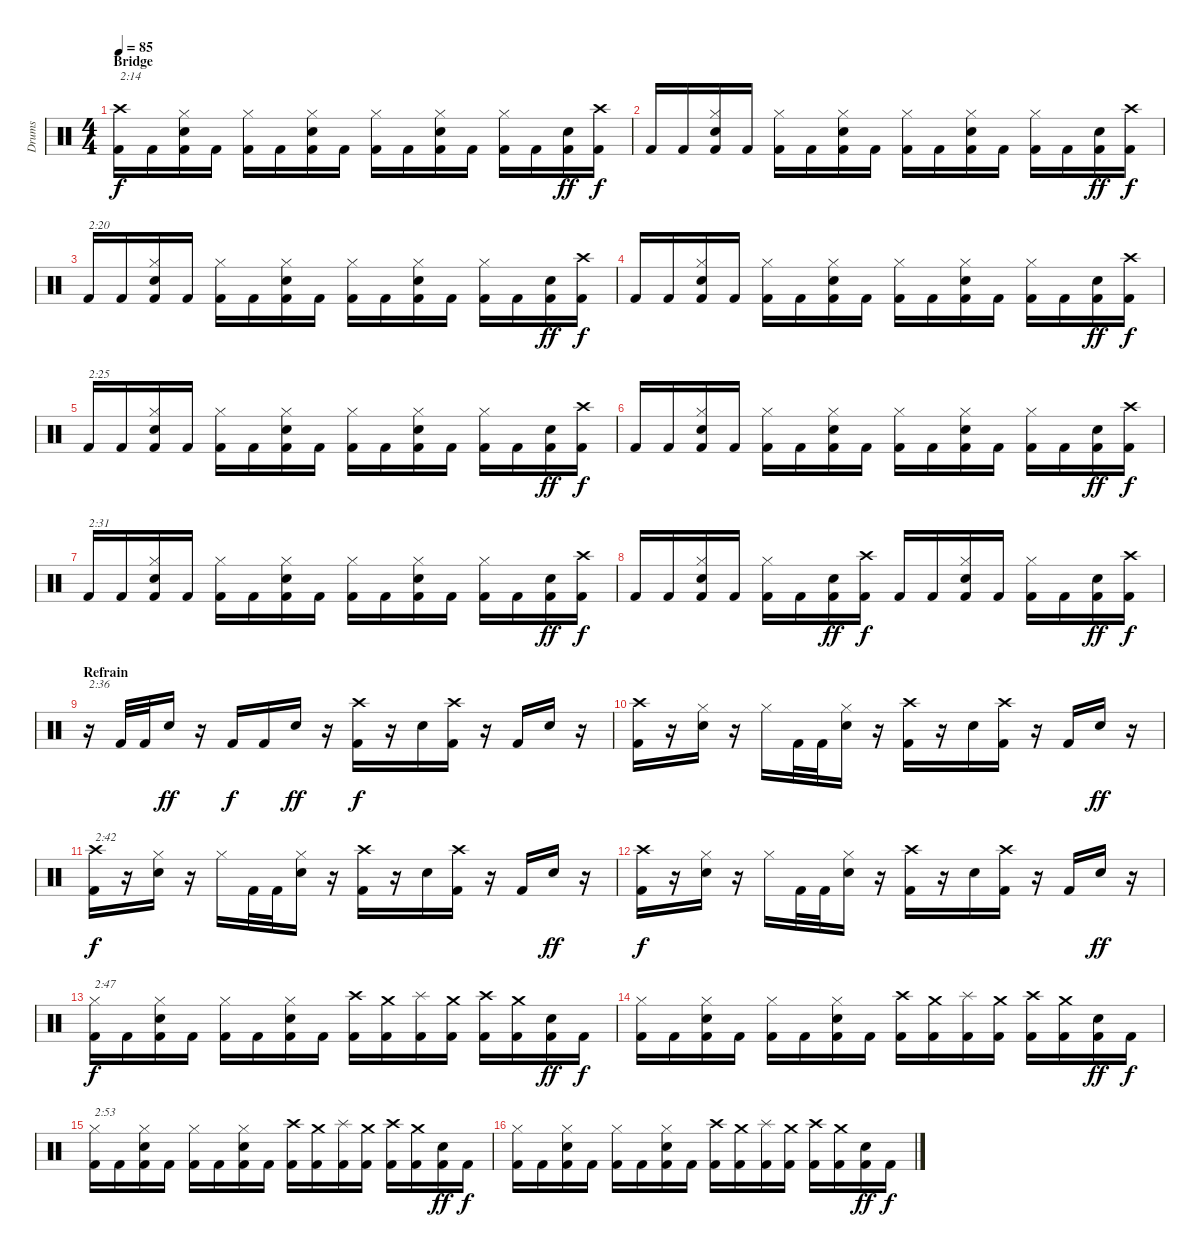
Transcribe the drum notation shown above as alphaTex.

\track ("Drums" "Drums") {instrument percussion}
\staff {score}
\articulation defaults
\ts (4 4)
\section ("" "Bridge")
\tempo 85
\clef neutral
\ks c
("Crash high (hit)" "Kick (hit) 2").16{txt "2:14" dy f} "Kick (hit) 2".16 ("Hi-Hat (closed)" "Snare (hit) 2" "Kick (hit) 2").16 "Kick (hit) 2".16 ("Hi-Hat (closed)" "Kick (hit) 2").16 "Kick (hit) 2".16 ("Hi-Hat (closed)" "Snare (hit) 2" "Kick (hit) 2").16 "Kick (hit) 2".16 ("Hi-Hat (closed)" "Kick (hit) 2").16 "Kick (hit) 2".16 ("Hi-Hat (closed)" "Snare (hit) 2" "Kick (hit) 2").16 "Kick (hit) 2".16 ("Hi-Hat (closed)" "Kick (hit) 2").16 "Kick (hit) 2".16 ("Snare (hit) 2" "Kick (hit) 2").16{dy ff} ("Crash high (hit)" "Kick (hit) 2").16{dy f} |
"Kick (hit) 2".16 "Kick (hit) 2".16 ("Hi-Hat (closed)" "Snare (hit) 2" "Kick (hit) 2").16 "Kick (hit) 2".16 ("Hi-Hat (closed)" "Kick (hit) 2").16 "Kick (hit) 2".16 ("Hi-Hat (closed)" "Snare (hit) 2" "Kick (hit) 2").16 "Kick (hit) 2".16 ("Hi-Hat (closed)" "Kick (hit) 2").16 "Kick (hit) 2".16 ("Hi-Hat (closed)" "Snare (hit) 2" "Kick (hit) 2").16 "Kick (hit) 2".16 ("Hi-Hat (closed)" "Kick (hit) 2").16 "Kick (hit) 2".16 ("Snare (hit) 2" "Kick (hit) 2").16{dy ff} ("Crash high (hit)" "Kick (hit) 2").16{dy f} |
"Kick (hit) 2".16{txt "2:20"} "Kick (hit) 2".16 ("Hi-Hat (closed)" "Snare (hit) 2" "Kick (hit) 2").16 "Kick (hit) 2".16 ("Hi-Hat (closed)" "Kick (hit) 2").16 "Kick (hit) 2".16 ("Hi-Hat (closed)" "Snare (hit) 2" "Kick (hit) 2").16 "Kick (hit) 2".16 ("Hi-Hat (closed)" "Kick (hit) 2").16 "Kick (hit) 2".16 ("Hi-Hat (closed)" "Snare (hit) 2" "Kick (hit) 2").16 "Kick (hit) 2".16 ("Hi-Hat (closed)" "Kick (hit) 2").16 "Kick (hit) 2".16 ("Snare (hit) 2" "Kick (hit) 2").16{dy ff} ("Crash high (hit)" "Kick (hit) 2").16{dy f} |
"Kick (hit) 2".16 "Kick (hit) 2".16 ("Hi-Hat (closed)" "Snare (hit) 2" "Kick (hit) 2").16 "Kick (hit) 2".16 ("Hi-Hat (closed)" "Kick (hit) 2").16 "Kick (hit) 2".16 ("Hi-Hat (closed)" "Snare (hit) 2" "Kick (hit) 2").16 "Kick (hit) 2".16 ("Hi-Hat (closed)" "Kick (hit) 2").16 "Kick (hit) 2".16 ("Hi-Hat (closed)" "Snare (hit) 2" "Kick (hit) 2").16 "Kick (hit) 2".16 ("Hi-Hat (closed)" "Kick (hit) 2").16 "Kick (hit) 2".16 ("Snare (hit) 2" "Kick (hit) 2").16{dy ff} ("Crash high (hit)" "Kick (hit) 2").16{dy f} |
"Kick (hit) 2".16{txt "2:25"} "Kick (hit) 2".16 ("Hi-Hat (closed)" "Snare (hit) 2" "Kick (hit) 2").16 "Kick (hit) 2".16 ("Hi-Hat (closed)" "Kick (hit) 2").16 "Kick (hit) 2".16 ("Hi-Hat (closed)" "Snare (hit) 2" "Kick (hit) 2").16 "Kick (hit) 2".16 ("Hi-Hat (closed)" "Kick (hit) 2").16 "Kick (hit) 2".16 ("Hi-Hat (closed)" "Snare (hit) 2" "Kick (hit) 2").16 "Kick (hit) 2".16 ("Hi-Hat (closed)" "Kick (hit) 2").16 "Kick (hit) 2".16 ("Snare (hit) 2" "Kick (hit) 2").16{dy ff} ("Crash high (hit)" "Kick (hit) 2").16{dy f} |
"Kick (hit) 2".16 "Kick (hit) 2".16 ("Hi-Hat (closed)" "Snare (hit) 2" "Kick (hit) 2").16 "Kick (hit) 2".16 ("Hi-Hat (closed)" "Kick (hit) 2").16 "Kick (hit) 2".16 ("Hi-Hat (closed)" "Snare (hit) 2" "Kick (hit) 2").16 "Kick (hit) 2".16 ("Hi-Hat (closed)" "Kick (hit) 2").16 "Kick (hit) 2".16 ("Hi-Hat (closed)" "Snare (hit) 2" "Kick (hit) 2").16 "Kick (hit) 2".16 ("Hi-Hat (closed)" "Kick (hit) 2").16 "Kick (hit) 2".16 ("Snare (hit) 2" "Kick (hit) 2").16{dy ff} ("Crash high (hit)" "Kick (hit) 2").16{dy f} |
"Kick (hit) 2".16{txt "2:31"} "Kick (hit) 2".16 ("Hi-Hat (closed)" "Snare (hit) 2" "Kick (hit) 2").16 "Kick (hit) 2".16 ("Hi-Hat (closed)" "Kick (hit) 2").16 "Kick (hit) 2".16 ("Hi-Hat (closed)" "Snare (hit) 2" "Kick (hit) 2").16 "Kick (hit) 2".16 ("Hi-Hat (closed)" "Kick (hit) 2").16 "Kick (hit) 2".16 ("Hi-Hat (closed)" "Snare (hit) 2" "Kick (hit) 2").16 "Kick (hit) 2".16 ("Hi-Hat (closed)" "Kick (hit) 2").16 "Kick (hit) 2".16 ("Snare (hit) 2" "Kick (hit) 2").16{dy ff} ("Crash high (hit)" "Kick (hit) 2").16{dy f} |
"Kick (hit) 2".16 "Kick (hit) 2".16 ("Hi-Hat (closed)" "Snare (hit) 2" "Kick (hit) 2").16 "Kick (hit) 2".16 ("Hi-Hat (closed)" "Kick (hit) 2").16 "Kick (hit) 2".16 ("Snare (hit) 2" "Kick (hit) 2").16{dy ff} ("Crash high (hit)" "Kick (hit) 2").16{dy f} "Kick (hit) 2".16 "Kick (hit) 2".16 ("Hi-Hat (closed)" "Snare (hit) 2" "Kick (hit) 2").16 "Kick (hit) 2".16 ("Hi-Hat (closed)" "Kick (hit) 2").16 "Kick (hit) 2".16 ("Snare (hit) 2" "Kick (hit) 2").16{dy ff} ("Crash high (hit)" "Kick (hit) 2").16{dy f} |
\section ("" "Refrain")
r.16{txt "2:36"} "Kick (hit) 2".32 "Kick (hit) 2".32 "Snare (hit) 2".16{dy ff} r.16 "Kick (hit) 2".16{dy f} "Kick (hit) 2".16 "Snare (hit) 2".16{dy ff} r.16 ("Crash high (hit)" "Kick (hit) 2").16{dy f} r.16 "Snare (hit) 2".16 ("Crash high (hit)" "Kick (hit) 2").16 r.16 "Kick (hit) 2".16 "Snare (hit) 2".16 r.16 |
("Crash high (hit)" "Kick (hit) 2").16 r.16 ("Hi-Hat (closed)" "Snare (hit) 2").16 r.16 "Hi-Hat (closed)".16 "Kick (hit) 2".32 "Kick (hit) 2".32 ("Hi-Hat (closed)" "Snare (hit) 2").16 r.16 ("Crash high (hit)" "Kick (hit) 2").16 r.16 "Snare (hit) 2".16 ("Crash high (hit)" "Kick (hit) 2").16 r.16 "Kick (hit) 2".16 "Snare (hit) 2".16{dy ff} r.16 |
("Crash high (hit)" "Kick (hit) 2").16{txt "2:42" dy f} r.16 ("Hi-Hat (closed)" "Snare (hit) 2").16 r.16 "Hi-Hat (closed)".16 "Kick (hit) 2".32 "Kick (hit) 2".32 ("Hi-Hat (closed)" "Snare (hit) 2").16 r.16 ("Crash high (hit)" "Kick (hit) 2").16 r.16 "Snare (hit) 2".16 ("Crash high (hit)" "Kick (hit) 2").16 r.16 "Kick (hit) 2".16 "Snare (hit) 2".16{dy ff} r.16 |
("Crash high (hit)" "Kick (hit) 2").16{dy f} r.16 ("Hi-Hat (closed)" "Snare (hit) 2").16 r.16 "Hi-Hat (closed)".16 "Kick (hit) 2".32 "Kick (hit) 2".32 ("Hi-Hat (closed)" "Snare (hit) 2").16 r.16 ("Crash high (hit)" "Kick (hit) 2").16 r.16 "Snare (hit) 2".16 ("Crash high (hit)" "Kick (hit) 2").16 r.16 "Kick (hit) 2".16 "Snare (hit) 2".16{dy ff} r.16 |
("Hi-Hat (closed)" "Kick (hit) 2").16{txt "2:47" dy f} "Kick (hit) 2".16 ("Hi-Hat (closed)" "Snare (hit) 2" "Kick (hit) 2").16 "Kick (hit) 2".16 ("Hi-Hat (closed)" "Kick (hit) 2").16 "Kick (hit) 2".16 ("Hi-Hat (closed)" "Snare (hit) 2" "Kick (hit) 2").16 "Kick (hit) 2".16 ("Crash high (hit)" "Kick (hit) 2").16 ("Crash medium (hit)" "Kick (hit) 2").16 ("Splash (hit)" "Kick (hit) 2").16 ("Crash medium (hit)" "Kick (hit) 2").16 ("Crash high (hit)" "Kick (hit) 2").16 ("Crash medium (hit)" "Kick (hit) 2").16 ("Snare (hit) 2" "Kick (hit) 2").16{dy ff} "Kick (hit) 2".16{dy f} |
("Hi-Hat (closed)" "Kick (hit) 2").16 "Kick (hit) 2".16 ("Hi-Hat (closed)" "Snare (hit) 2" "Kick (hit) 2").16 "Kick (hit) 2".16 ("Hi-Hat (closed)" "Kick (hit) 2").16 "Kick (hit) 2".16 ("Hi-Hat (closed)" "Snare (hit) 2" "Kick (hit) 2").16 "Kick (hit) 2".16 ("Crash high (hit)" "Kick (hit) 2").16 ("Crash medium (hit)" "Kick (hit) 2").16 ("Splash (hit)" "Kick (hit) 2").16 ("Crash medium (hit)" "Kick (hit) 2").16 ("Crash high (hit)" "Kick (hit) 2").16 ("Crash medium (hit)" "Kick (hit) 2").16 ("Snare (hit) 2" "Kick (hit) 2").16{dy ff} "Kick (hit) 2".16{dy f} |
("Hi-Hat (closed)" "Kick (hit) 2").16{txt "2:53"} "Kick (hit) 2".16 ("Hi-Hat (closed)" "Snare (hit) 2" "Kick (hit) 2").16 "Kick (hit) 2".16 ("Hi-Hat (closed)" "Kick (hit) 2").16 "Kick (hit) 2".16 ("Hi-Hat (closed)" "Snare (hit) 2" "Kick (hit) 2").16 "Kick (hit) 2".16 ("Crash high (hit)" "Kick (hit) 2").16 ("Crash medium (hit)" "Kick (hit) 2").16 ("Splash (hit)" "Kick (hit) 2").16 ("Crash medium (hit)" "Kick (hit) 2").16 ("Crash high (hit)" "Kick (hit) 2").16 ("Crash medium (hit)" "Kick (hit) 2").16 ("Snare (hit) 2" "Kick (hit) 2").16{dy ff} "Kick (hit) 2".16{dy f} |
("Hi-Hat (closed)" "Kick (hit) 2").16 "Kick (hit) 2".16 ("Hi-Hat (closed)" "Snare (hit) 2" "Kick (hit) 2").16 "Kick (hit) 2".16 ("Hi-Hat (closed)" "Kick (hit) 2").16 "Kick (hit) 2".16 ("Hi-Hat (closed)" "Snare (hit) 2" "Kick (hit) 2").16 "Kick (hit) 2".16 ("Crash high (hit)" "Kick (hit) 2").16 ("Crash medium (hit)" "Kick (hit) 2").16 ("Splash (hit)" "Kick (hit) 2").16 ("Crash medium (hit)" "Kick (hit) 2").16 ("Crash high (hit)" "Kick (hit) 2").16 ("Crash medium (hit)" "Kick (hit) 2").16 ("Snare (hit) 2" "Kick (hit) 2").16{dy ff} "Kick (hit) 2".16{dy f}
